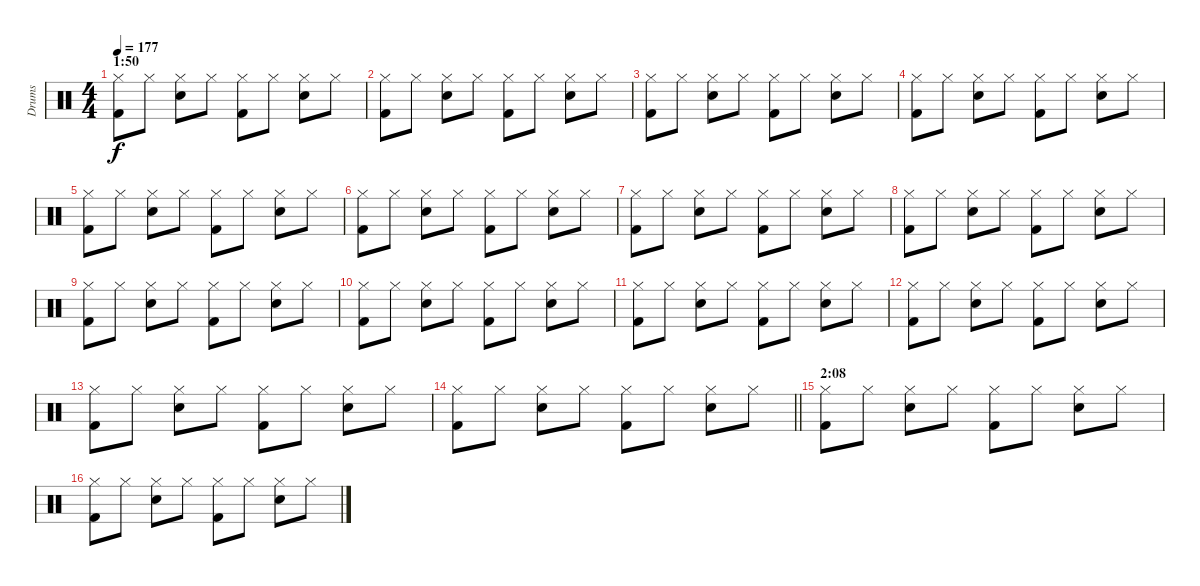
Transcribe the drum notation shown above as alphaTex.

\track ("Drums" "Drums") {instrument percussion}
\staff {score}
\articulation defaults
\ts (4 4)
\section ("" "1:50")
\tempo 177
\clef neutral
\ks c
("Hi-Hat (closed)" "Kick (hit) 2").8{dy f} "Hi-Hat (closed)".8 ("Hi-Hat (closed)" "Snare (hit) 2").8 "Hi-Hat (closed)".8 ("Hi-Hat (closed)" "Kick (hit) 2").8 "Hi-Hat (closed)".8 ("Hi-Hat (closed)" "Snare (hit) 2").8 "Hi-Hat (closed)".8 |
("Hi-Hat (closed)" "Kick (hit) 2").8 "Hi-Hat (closed)".8 ("Hi-Hat (closed)" "Snare (hit) 2").8 "Hi-Hat (closed)".8 ("Hi-Hat (closed)" "Kick (hit) 2").8 "Hi-Hat (closed)".8 ("Hi-Hat (closed)" "Snare (hit) 2").8 "Hi-Hat (closed)".8 |
("Hi-Hat (closed)" "Kick (hit) 2").8 "Hi-Hat (closed)".8 ("Hi-Hat (closed)" "Snare (hit) 2").8 "Hi-Hat (closed)".8 ("Hi-Hat (closed)" "Kick (hit) 2").8 "Hi-Hat (closed)".8 ("Hi-Hat (closed)" "Snare (hit) 2").8 "Hi-Hat (closed)".8 |
("Hi-Hat (closed)" "Kick (hit) 2").8 "Hi-Hat (closed)".8 ("Hi-Hat (closed)" "Snare (hit) 2").8 "Hi-Hat (closed)".8 ("Hi-Hat (closed)" "Kick (hit) 2").8 "Hi-Hat (closed)".8 ("Hi-Hat (closed)" "Snare (hit) 2").8 "Hi-Hat (closed)".8 |
("Hi-Hat (closed)" "Kick (hit) 2").8 "Hi-Hat (closed)".8 ("Hi-Hat (closed)" "Snare (hit) 2").8 "Hi-Hat (closed)".8 ("Hi-Hat (closed)" "Kick (hit) 2").8 "Hi-Hat (closed)".8 ("Hi-Hat (closed)" "Snare (hit) 2").8 "Hi-Hat (closed)".8 |
("Hi-Hat (closed)" "Kick (hit) 2").8 "Hi-Hat (closed)".8 ("Hi-Hat (closed)" "Snare (hit) 2").8 "Hi-Hat (closed)".8 ("Hi-Hat (closed)" "Kick (hit) 2").8 "Hi-Hat (closed)".8 ("Hi-Hat (closed)" "Snare (hit) 2").8 "Hi-Hat (closed)".8 |
("Hi-Hat (closed)" "Kick (hit) 2").8 "Hi-Hat (closed)".8 ("Hi-Hat (closed)" "Snare (hit) 2").8 "Hi-Hat (closed)".8 ("Hi-Hat (closed)" "Kick (hit) 2").8 "Hi-Hat (closed)".8 ("Hi-Hat (closed)" "Snare (hit) 2").8 "Hi-Hat (closed)".8 |
("Hi-Hat (closed)" "Kick (hit) 2").8 "Hi-Hat (closed)".8 ("Hi-Hat (closed)" "Snare (hit) 2").8 "Hi-Hat (closed)".8 ("Hi-Hat (closed)" "Kick (hit) 2").8 "Hi-Hat (closed)".8 ("Hi-Hat (closed)" "Snare (hit) 2").8 "Hi-Hat (closed)".8 |
("Hi-Hat (closed)" "Kick (hit) 2").8 "Hi-Hat (closed)".8 ("Hi-Hat (closed)" "Snare (hit) 2").8 "Hi-Hat (closed)".8 ("Hi-Hat (closed)" "Kick (hit) 2").8 "Hi-Hat (closed)".8 ("Hi-Hat (closed)" "Snare (hit) 2").8 "Hi-Hat (closed)".8 |
("Hi-Hat (closed)" "Kick (hit) 2").8 "Hi-Hat (closed)".8 ("Hi-Hat (closed)" "Snare (hit) 2").8 "Hi-Hat (closed)".8 ("Hi-Hat (closed)" "Kick (hit) 2").8 "Hi-Hat (closed)".8 ("Hi-Hat (closed)" "Snare (hit) 2").8 "Hi-Hat (closed)".8 |
("Hi-Hat (closed)" "Kick (hit) 2").8 "Hi-Hat (closed)".8 ("Hi-Hat (closed)" "Snare (hit) 2").8 "Hi-Hat (closed)".8 ("Hi-Hat (closed)" "Kick (hit) 2").8 "Hi-Hat (closed)".8 ("Hi-Hat (closed)" "Snare (hit) 2").8 "Hi-Hat (closed)".8 |
("Hi-Hat (closed)" "Kick (hit) 2").8 "Hi-Hat (closed)".8 ("Hi-Hat (closed)" "Snare (hit) 2").8 "Hi-Hat (closed)".8 ("Hi-Hat (closed)" "Kick (hit) 2").8 "Hi-Hat (closed)".8 ("Hi-Hat (closed)" "Snare (hit) 2").8 "Hi-Hat (closed)".8 |
("Hi-Hat (closed)" "Kick (hit) 2").8 "Hi-Hat (closed)".8 ("Hi-Hat (closed)" "Snare (hit) 2").8 "Hi-Hat (closed)".8 ("Hi-Hat (closed)" "Kick (hit) 2").8 "Hi-Hat (closed)".8 ("Hi-Hat (closed)" "Snare (hit) 2").8 "Hi-Hat (closed)".8 |
\barLineRight lightlight
("Hi-Hat (closed)" "Kick (hit) 2").8 "Hi-Hat (closed)".8 ("Hi-Hat (closed)" "Snare (hit) 2").8 "Hi-Hat (closed)".8 ("Hi-Hat (closed)" "Kick (hit) 2").8 "Hi-Hat (closed)".8 ("Hi-Hat (closed)" "Snare (hit) 2").8 "Hi-Hat (closed)".8 |
\section ("" "2:08")
("Hi-Hat (closed)" "Kick (hit) 2").8 "Hi-Hat (closed)".8 ("Hi-Hat (closed)" "Snare (hit) 2").8 "Hi-Hat (closed)".8 ("Hi-Hat (closed)" "Kick (hit) 2").8 "Hi-Hat (closed)".8 ("Hi-Hat (closed)" "Snare (hit) 2").8 "Hi-Hat (closed)".8 |
("Hi-Hat (closed)" "Kick (hit) 2").8 "Hi-Hat (closed)".8 ("Hi-Hat (closed)" "Snare (hit) 2").8 "Hi-Hat (closed)".8 ("Hi-Hat (closed)" "Kick (hit) 2").8 "Hi-Hat (closed)".8 ("Hi-Hat (closed)" "Snare (hit) 2").8 "Hi-Hat (closed)".8
